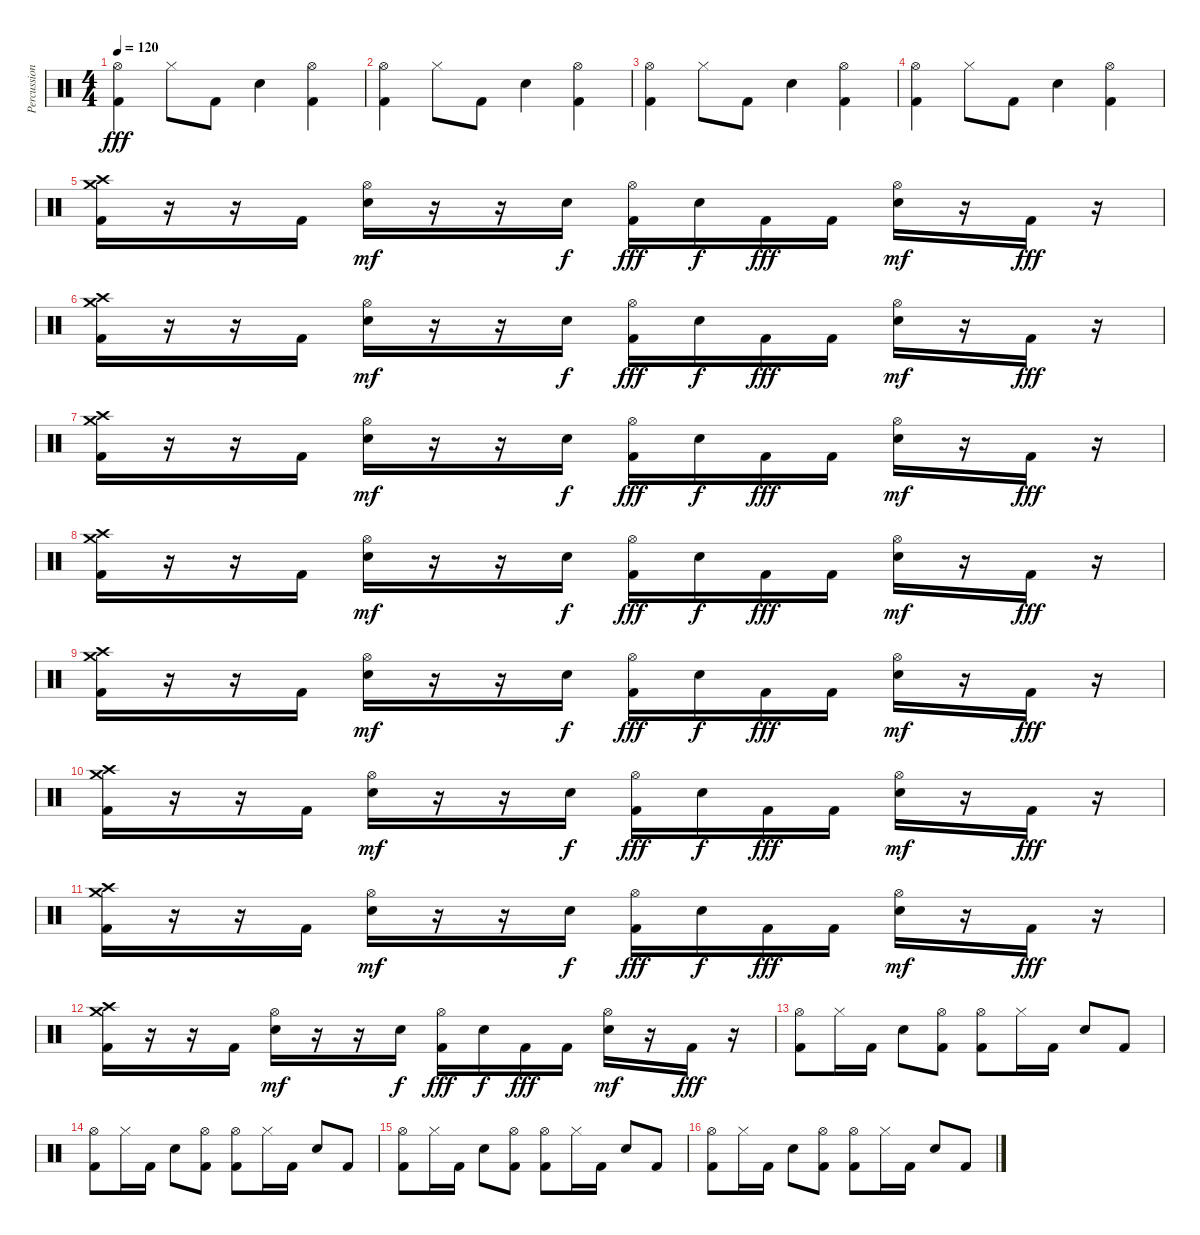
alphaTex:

\track ("Percussion" "Percussion") {instrument percussion}
\staff {score}
\articulation defaults
\ts (4 4)
\tempo 120
\clef neutral
\ks c
("Hi-Hat (open)" "Kick (hit) 2").4{dy fff} "Hi-Hat (closed)".8 "Kick (hit) 2".8 "Electric Snare (hit)".4 ("Hi-Hat (open)" "Kick (hit) 2").4 |
("Hi-Hat (open)" "Kick (hit) 2").4 "Hi-Hat (closed)".8 "Kick (hit) 2".8 "Electric Snare (hit)".4 ("Hi-Hat (open)" "Kick (hit) 2").4 |
("Hi-Hat (open)" "Kick (hit) 2").4 "Hi-Hat (closed)".8 "Kick (hit) 2".8 "Electric Snare (hit)".4 ("Hi-Hat (open)" "Kick (hit) 2").4 |
("Hi-Hat (open)" "Kick (hit) 2").4 "Hi-Hat (closed)".8 "Kick (hit) 2".8 "Electric Snare (hit)".4 ("Hi-Hat (open)" "Kick (hit) 2").4 |
("Crash medium (hit)" "Crash high (hit)" "Kick (hit) 2").16 r.16 r.16 "Kick (hit) 2".16 ("Hi-Hat (open)" "Snare (hit) 2").16{dy mf} r.16 r.16 "Snare (hit) 2".16{dy f} ("Hi-Hat (open)" "Kick (hit) 2").16{dy fff} "Snare (hit) 2".16{dy f} "Kick (hit) 2".16{dy fff} "Kick (hit) 2".16 ("Hi-Hat (open)" "Snare (hit) 2").16{dy mf} r.16 "Kick (hit) 2".16{dy fff} r.16 |
("Crash medium (hit)" "Crash high (hit)" "Kick (hit) 2").16 r.16 r.16 "Kick (hit) 2".16 ("Hi-Hat (open)" "Snare (hit) 2").16{dy mf} r.16 r.16 "Snare (hit) 2".16{dy f} ("Hi-Hat (open)" "Kick (hit) 2").16{dy fff} "Snare (hit) 2".16{dy f} "Kick (hit) 2".16{dy fff} "Kick (hit) 2".16 ("Hi-Hat (open)" "Snare (hit) 2").16{dy mf} r.16 "Kick (hit) 2".16{dy fff} r.16 |
("Crash medium (hit)" "Crash high (hit)" "Kick (hit) 2").16 r.16 r.16 "Kick (hit) 2".16 ("Hi-Hat (open)" "Snare (hit) 2").16{dy mf} r.16 r.16 "Snare (hit) 2".16{dy f} ("Hi-Hat (open)" "Kick (hit) 2").16{dy fff} "Snare (hit) 2".16{dy f} "Kick (hit) 2".16{dy fff} "Kick (hit) 2".16 ("Hi-Hat (open)" "Snare (hit) 2").16{dy mf} r.16 "Kick (hit) 2".16{dy fff} r.16 |
("Crash medium (hit)" "Crash high (hit)" "Kick (hit) 2").16 r.16 r.16 "Kick (hit) 2".16 ("Hi-Hat (open)" "Snare (hit) 2").16{dy mf} r.16 r.16 "Snare (hit) 2".16{dy f} ("Hi-Hat (open)" "Kick (hit) 2").16{dy fff} "Snare (hit) 2".16{dy f} "Kick (hit) 2".16{dy fff} "Kick (hit) 2".16 ("Hi-Hat (open)" "Snare (hit) 2").16{dy mf} r.16 "Kick (hit) 2".16{dy fff} r.16 |
("Crash medium (hit)" "Crash high (hit)" "Kick (hit) 2").16 r.16 r.16 "Kick (hit) 2".16 ("Hi-Hat (open)" "Snare (hit) 2").16{dy mf} r.16 r.16 "Snare (hit) 2".16{dy f} ("Hi-Hat (open)" "Kick (hit) 2").16{dy fff} "Snare (hit) 2".16{dy f} "Kick (hit) 2".16{dy fff} "Kick (hit) 2".16 ("Hi-Hat (open)" "Snare (hit) 2").16{dy mf} r.16 "Kick (hit) 2".16{dy fff} r.16 |
("Crash medium (hit)" "Crash high (hit)" "Kick (hit) 2").16 r.16 r.16 "Kick (hit) 2".16 ("Hi-Hat (open)" "Snare (hit) 2").16{dy mf} r.16 r.16 "Snare (hit) 2".16{dy f} ("Hi-Hat (open)" "Kick (hit) 2").16{dy fff} "Snare (hit) 2".16{dy f} "Kick (hit) 2".16{dy fff} "Kick (hit) 2".16 ("Hi-Hat (open)" "Snare (hit) 2").16{dy mf} r.16 "Kick (hit) 2".16{dy fff} r.16 |
("Crash medium (hit)" "Crash high (hit)" "Kick (hit) 2").16 r.16 r.16 "Kick (hit) 2".16 ("Hi-Hat (open)" "Snare (hit) 2").16{dy mf} r.16 r.16 "Snare (hit) 2".16{dy f} ("Hi-Hat (open)" "Kick (hit) 2").16{dy fff} "Snare (hit) 2".16{dy f} "Kick (hit) 2".16{dy fff} "Kick (hit) 2".16 ("Hi-Hat (open)" "Snare (hit) 2").16{dy mf} r.16 "Kick (hit) 2".16{dy fff} r.16 |
("Crash medium (hit)" "Crash high (hit)" "Kick (hit) 2").16 r.16 r.16 "Kick (hit) 2".16 ("Hi-Hat (open)" "Snare (hit) 2").16{dy mf} r.16 r.16 "Snare (hit) 2".16{dy f} ("Hi-Hat (open)" "Kick (hit) 2").16{dy fff} "Snare (hit) 2".16{dy f} "Kick (hit) 2".16{dy fff} "Kick (hit) 2".16 ("Hi-Hat (open)" "Snare (hit) 2").16{dy mf} r.16 "Kick (hit) 2".16{dy fff} r.16 |
("Hi-Hat (open)" "Kick (hit) 2").8 "Hi-Hat (closed)".16 "Kick (hit) 2".16 "Electric Snare (hit)".8 ("Hi-Hat (open)" "Kick (hit) 2").8 ("Hi-Hat (open)" "Kick (hit) 2").8 "Hi-Hat (closed)".16 "Kick (hit) 2".16 "Electric Snare (hit)".8 "Kick (hit) 2".8 |
("Hi-Hat (open)" "Kick (hit) 2").8 "Hi-Hat (closed)".16 "Kick (hit) 2".16 "Electric Snare (hit)".8 ("Hi-Hat (open)" "Kick (hit) 2").8 ("Hi-Hat (open)" "Kick (hit) 2").8 "Hi-Hat (closed)".16 "Kick (hit) 2".16 "Electric Snare (hit)".8 "Kick (hit) 2".8 |
("Hi-Hat (open)" "Kick (hit) 2").8 "Hi-Hat (closed)".16 "Kick (hit) 2".16 "Electric Snare (hit)".8 ("Hi-Hat (open)" "Kick (hit) 2").8 ("Hi-Hat (open)" "Kick (hit) 2").8 "Hi-Hat (closed)".16 "Kick (hit) 2".16 "Electric Snare (hit)".8 "Kick (hit) 2".8 |
("Hi-Hat (open)" "Kick (hit) 2").8 "Hi-Hat (closed)".16 "Kick (hit) 2".16 "Electric Snare (hit)".8 ("Hi-Hat (open)" "Kick (hit) 2").8 ("Hi-Hat (open)" "Kick (hit) 2").8 "Hi-Hat (closed)".16 "Kick (hit) 2".16 "Electric Snare (hit)".8 "Kick (hit) 2".8
